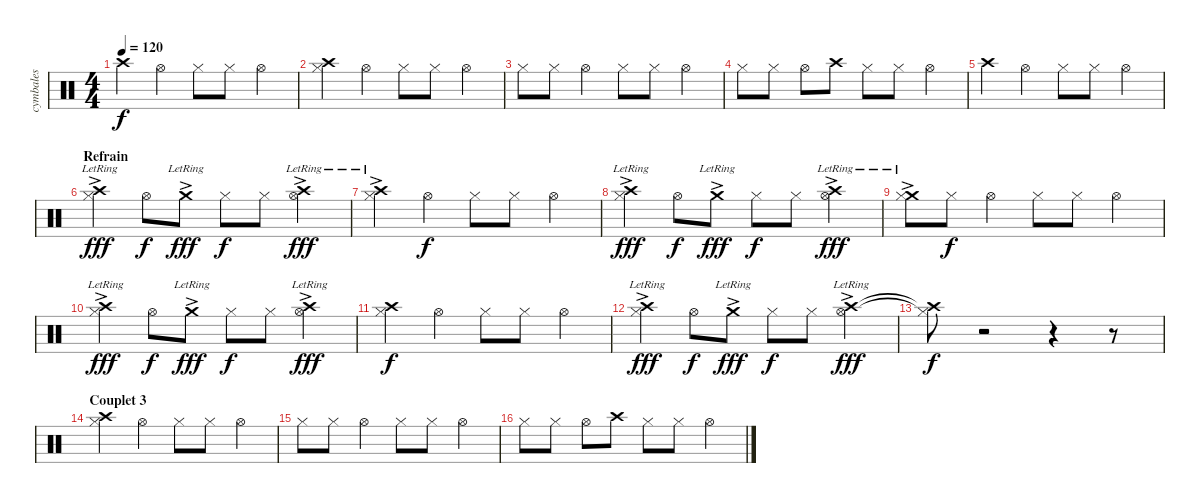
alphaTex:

\track ("cymbales" "cymbales") {instrument percussion}
\staff {score}
\articulation defaults
\ts (4 4)
\tempo 120
\clef neutral
\ks c "Crash high (hit)".4{dy f} "Hi-Hat (open)".4 "Hi-Hat (closed)".8 "Hi-Hat (closed)".8 "Hi-Hat (open)".4
|
("Crash high (hit)" "Hi-Hat (closed)").4 "Hi-Hat (open)".4 "Hi-Hat (closed)".8 "Hi-Hat (closed)".8 "Hi-Hat (open)".4 |
"Hi-Hat (closed)".8 "Hi-Hat (closed)".8 "Hi-Hat (open)".4 "Hi-Hat (closed)".8 "Hi-Hat (closed)".8 "Hi-Hat (open)".4 |
"Hi-Hat (closed)".8 "Hi-Hat (closed)".8 "Hi-Hat (open)".8 "Crash high (hit)".8 "Hi-Hat (closed)".8 "Hi-Hat (closed)".8 "Hi-Hat (open)".4 |
"Crash high (hit)".4 "Hi-Hat (open)".4 "Hi-Hat (closed)".8 "Hi-Hat (closed)".8 "Hi-Hat (open)".4 |
\section ("" "Refrain")
("Crash high (hit)"{ac lr} "Hi-Hat (closed)"{ac lr}).4{dy fff} "Hi-Hat (open)".8{dy f} "Crash medium (hit)"{ac lr}.8{dy fff} "Hi-Hat (closed)".8{dy f} "Hi-Hat (closed)".8 ("Crash high (hit)"{ac lr} "Hi-Hat (open)").4{dy fff} |
("Crash high (hit)"{ac lr} "Hi-Hat (closed)").4 "Hi-Hat (open)".4{dy f} "Hi-Hat (closed)".8 "Hi-Hat (closed)".8 "Hi-Hat (open)".4 |
("Crash high (hit)"{ac lr} "Hi-Hat (closed)"{ac lr}).4{dy fff} "Hi-Hat (open)".8{dy f} "Crash medium (hit)"{ac lr}.8{dy fff} "Hi-Hat (closed)".8{dy f} "Hi-Hat (closed)".8 ("Crash high (hit)"{ac lr} "Hi-Hat (open)").4{dy fff} |
("Crash medium (hit)"{ac lr} "Hi-Hat (closed)").8 "Hi-Hat (closed)".8{dy f} "Hi-Hat (open)".4 "Hi-Hat (closed)".8 "Hi-Hat (closed)".8 "Hi-Hat (open)".4 |
("Crash high (hit)"{ac lr} "Hi-Hat (closed)"{ac lr}).4{dy fff} "Hi-Hat (open)".8{dy f} "Crash medium (hit)"{ac lr}.8{dy fff} "Hi-Hat (closed)".8{dy f} "Hi-Hat (closed)".8 ("Crash high (hit)"{ac lr} "Hi-Hat (open)").4{dy fff} |
("Crash high (hit)" "Hi-Hat (closed)").4{dy f} "Hi-Hat (open)".4 "Hi-Hat (closed)".8 "Hi-Hat (closed)".8 "Hi-Hat (open)".4 |
("Crash high (hit)"{ac lr} "Hi-Hat (closed)"{ac lr}).4{dy fff} "Hi-Hat (open)".8{dy f} "Crash medium (hit)"{ac lr}.8{dy fff} "Hi-Hat (closed)".8{dy f} "Hi-Hat (closed)".8 ("Crash high (hit)"{ac lr} "Hi-Hat (open)").4{dy fff} |
("Crash high (hit)"{t} "Hi-Hat (closed)"{t}).8{dy f} r.2 r.4 r.8 |
\section ("" "Couplet 3")
("Crash high (hit)" "Hi-Hat (closed)").4 "Hi-Hat (open)".4 "Hi-Hat (closed)".8 "Hi-Hat (closed)".8 "Hi-Hat (open)".4 |
"Hi-Hat (closed)".8 "Hi-Hat (closed)".8 "Hi-Hat (open)".4 "Hi-Hat (closed)".8 "Hi-Hat (closed)".8 "Hi-Hat (open)".4 |
"Hi-Hat (closed)".8 "Hi-Hat (closed)".8 "Hi-Hat (open)".8 "Crash high (hit)".8 "Hi-Hat (closed)".8 "Hi-Hat (closed)".8 "Hi-Hat (open)".4
